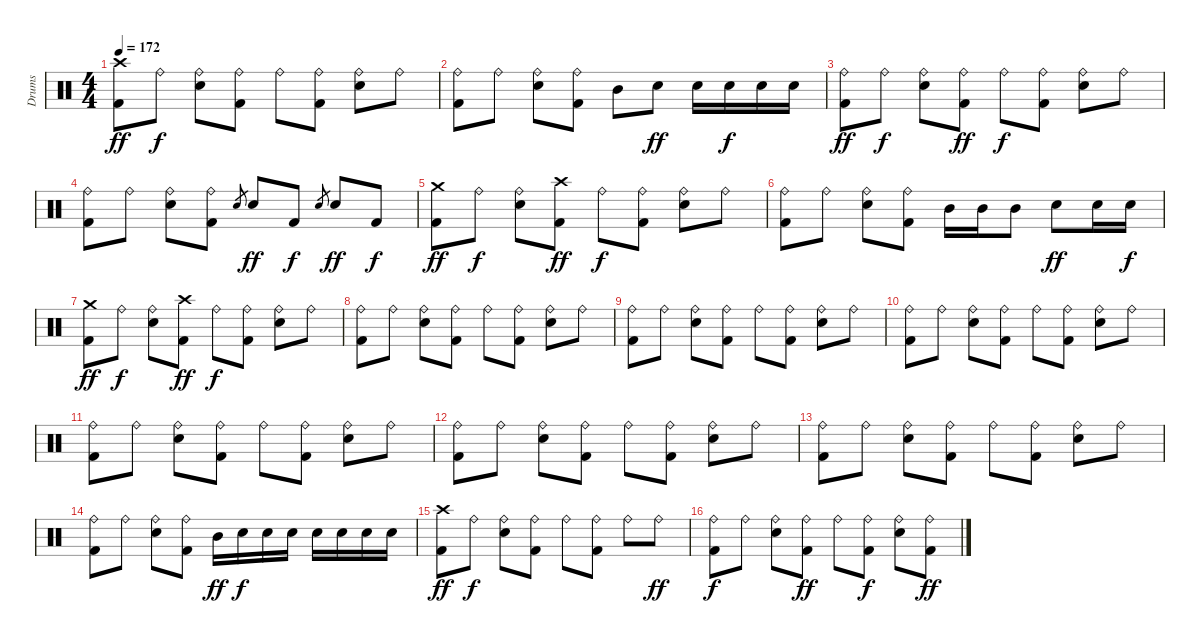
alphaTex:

\track ("Drums" "Drums") {instrument percussion}
\staff {score}
\articulation defaults
\ts (4 4)
\tempo 172
\clef neutral
\ks c
("Crash high (hit)" "Kick (hit) 2").8{dy ff} "Ride (bell)".8{dy f} ("Ride (bell)" "Electric Snare (hit)").8 ("Ride (bell)" "Kick (hit) 2").8 "Ride (bell)".8 ("Ride (bell)" "Kick (hit) 2").8 ("Ride (bell)" "Electric Snare (hit)").8 "Ride (bell)".8 |
("Ride (bell)" "Kick (hit) 2").8 "Ride (bell)".8 ("Ride (bell)" "Electric Snare (hit)").8 ("Ride (bell)" "Kick (hit) 2").8 "Mid Tom (hit)".8 "Electric Snare (hit)".8{dy ff} "Electric Snare (hit)".16 "Electric Snare (hit)".16{dy f} "Electric Snare (hit)".16 "Electric Snare (hit)".16 |
("Ride (bell)" "Kick (hit) 2").8{dy ff} "Ride (bell)".8{dy f} ("Ride (bell)" "Electric Snare (hit)").8 ("Ride (bell)" "Kick (hit) 2").8{dy ff} "Ride (bell)".8{dy f} ("Ride (bell)" "Kick (hit) 2").8 ("Ride (bell)" "Electric Snare (hit)").8 "Ride (bell)".8 |
("Ride (bell)" "Kick (hit) 2").8 "Ride (bell)".8 ("Ride (bell)" "Electric Snare (hit)").8 ("Ride (bell)" "Kick (hit) 2").8 "Electric Snare (hit)".8{gr} "Electric Snare (hit)".8{dy ff} "Kick (hit) 2".8{dy f} "Electric Snare (hit)".8{gr} "Electric Snare (hit)".8{dy ff} "Kick (hit) 2".8{dy f} |
("Crash medium (hit)" "Kick (hit) 2").8{dy ff} "Ride (bell)".8{dy f} ("Ride (bell)" "Electric Snare (hit)").8 ("Crash high (hit)" "Kick (hit) 2").8{dy ff} "Ride (bell)".8{dy f} ("Ride (bell)" "Kick (hit) 2").8 ("Ride (bell)" "Electric Snare (hit)").8 "Ride (bell)".8 |
("Ride (bell)" "Kick (hit) 2").8 "Ride (bell)".8 ("Ride (bell)" "Electric Snare (hit)").8 ("Ride (bell)" "Kick (hit) 2").8 "Mid Tom (hit)".16 "Mid Tom (hit)".16 "Mid Tom (hit)".8 "Electric Snare (hit)".8{dy ff} "Electric Snare (hit)".16 "Electric Snare (hit)".16{dy f} |
("Crash medium (hit)" "Kick (hit) 2").8{dy ff} "Ride (bell)".8{dy f} ("Ride (bell)" "Electric Snare (hit)").8 ("Crash high (hit)" "Kick (hit) 2").8{dy ff} "Ride (bell)".8{dy f} ("Ride (bell)" "Kick (hit) 2").8 ("Ride (bell)" "Electric Snare (hit)").8 "Ride (bell)".8 |
("Ride (bell)" "Kick (hit) 2").8 "Ride (bell)".8 ("Ride (bell)" "Electric Snare (hit)").8 ("Ride (bell)" "Kick (hit) 2").8 "Ride (bell)".8 ("Ride (bell)" "Kick (hit) 2").8 ("Ride (bell)" "Electric Snare (hit)").8 "Ride (bell)".8 |
("Ride (bell)" "Kick (hit) 2").8 "Ride (bell)".8 ("Ride (bell)" "Electric Snare (hit)").8 ("Ride (bell)" "Kick (hit) 2").8 "Ride (bell)".8 ("Ride (bell)" "Kick (hit) 2").8 ("Ride (bell)" "Electric Snare (hit)").8 "Ride (bell)".8 |
("Ride (bell)" "Kick (hit) 2").8 "Ride (bell)".8 ("Ride (bell)" "Electric Snare (hit)").8 ("Ride (bell)" "Kick (hit) 2").8 "Ride (bell)".8 ("Ride (bell)" "Kick (hit) 2").8 ("Ride (bell)" "Electric Snare (hit)").8 "Ride (bell)".8 |
("Ride (bell)" "Kick (hit) 2").8 "Ride (bell)".8 ("Ride (bell)" "Electric Snare (hit)").8 ("Ride (bell)" "Kick (hit) 2").8 "Ride (bell)".8 ("Ride (bell)" "Kick (hit) 2").8 ("Ride (bell)" "Electric Snare (hit)").8 "Ride (bell)".8 |
("Ride (bell)" "Kick (hit) 2").8 "Ride (bell)".8 ("Ride (bell)" "Electric Snare (hit)").8 ("Ride (bell)" "Kick (hit) 2").8 "Ride (bell)".8 ("Ride (bell)" "Kick (hit) 2").8 ("Ride (bell)" "Electric Snare (hit)").8 "Ride (bell)".8 |
("Ride (bell)" "Kick (hit) 2").8 "Ride (bell)".8 ("Ride (bell)" "Electric Snare (hit)").8 ("Ride (bell)" "Kick (hit) 2").8 "Ride (bell)".8 ("Ride (bell)" "Kick (hit) 2").8 ("Ride (bell)" "Electric Snare (hit)").8 "Ride (bell)".8 |
("Ride (bell)" "Kick (hit) 2").8 "Ride (bell)".8 ("Ride (bell)" "Electric Snare (hit)").8 ("Ride (bell)" "Kick (hit) 2").8 "Mid Tom (hit)".16{dy ff} "Electric Snare (hit)".16{dy f} "Electric Snare (hit)".16 "Electric Snare (hit)".16 "Electric Snare (hit)".16 "Electric Snare (hit)".16 "Electric Snare (hit)".16 "Electric Snare (hit)".16 |
("Crash high (hit)" "Kick (hit) 2").8{dy ff} "Ride (bell)".8{dy f} ("Ride (bell)" "Electric Snare (hit)").8 ("Ride (bell)" "Kick (hit) 2").8 "Ride (bell)".8 ("Ride (bell)" "Kick (hit) 2").8 "Ride (bell)".8 "Ride (bell)".8{dy ff} |
("Ride (bell)" "Kick (hit) 2").8{dy f} "Ride (bell)".8 ("Ride (bell)" "Electric Snare (hit)").8 ("Ride (bell)" "Kick (hit) 2").8{dy ff} "Ride (bell)".8 ("Ride (bell)" "Kick (hit) 2").8{dy f} ("Ride (bell)" "Electric Snare (hit)").8 ("Ride (bell)" "Kick (hit) 2").8{dy ff}
